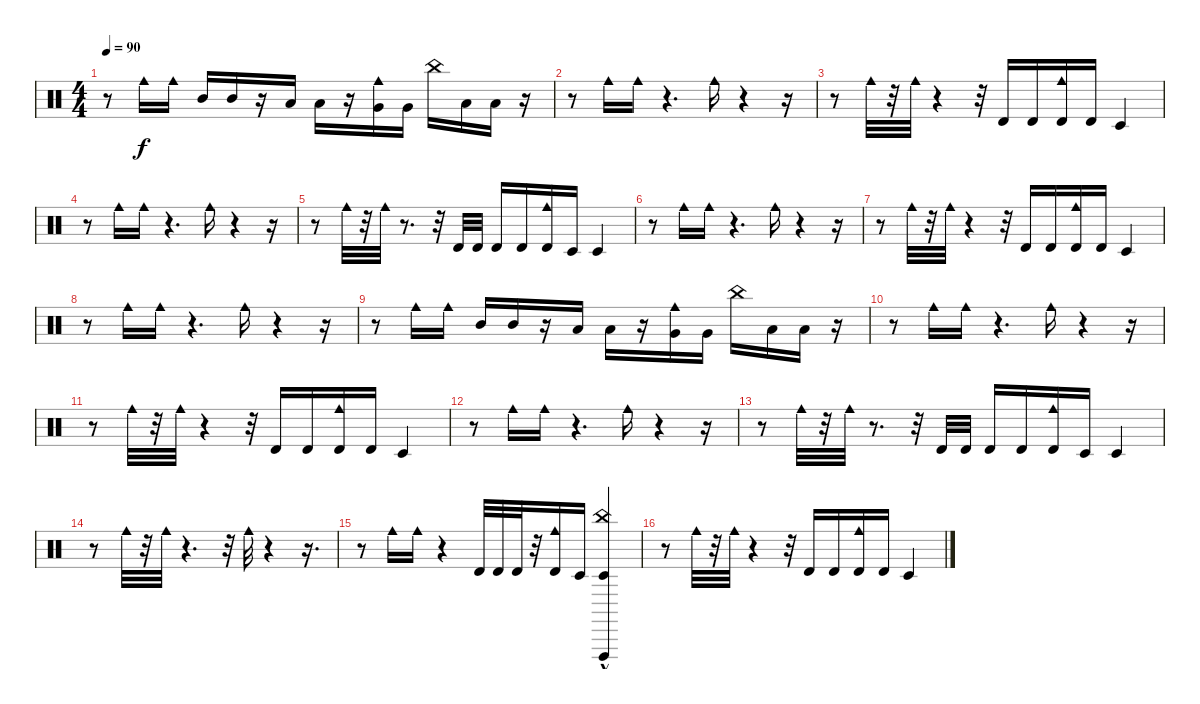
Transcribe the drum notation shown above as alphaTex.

\track "" {instrument percussion}
\staff {score}
\articulation defaults
\ts (4 4)
\tempo 90
\clef neutral
\ks c
r.8{dy f} "Cowbell medium (hit)".16 "Cowbell medium (hit)".16 "Mid Tom (hit)".16 "Mid Tom (hit)".16 r.16 "Low Tom (hit)".16 "Low Tom (hit)".16 r.16 ("Very Low Tom (hit)" "Cowbell medium (hit)").16 "Very Low Tom (hit)".16 "China (hit)".16 "Low Floor Tom (hit)".16 "Low Floor Tom (hit)".16 r.16 |
r.8 "Cowbell medium (hit)".16 "Cowbell medium (hit)".16 r.4{d} "Cowbell medium (hit)".16 r.4 r.16 |
r.8 "Cowbell medium (hit)".32 r.32 "Cowbell medium (hit)".32 r.4 r.32 "Timbale high (hit)".16 "Timbale high (hit)".16 ("Cowbell medium (hit)" "Timbale high (hit)").16 "Timbale high (hit)".16 "Timbale low (hit)".4 |
r.8 "Cowbell medium (hit)".16 "Cowbell medium (hit)".16 r.4{d} "Cowbell medium (hit)".16 r.4 r.16 |
r.8 "Cowbell medium (hit)".32 r.32 "Cowbell medium (hit)".32 r.8{d} r.32 "Timbale high (hit)".32 "Timbale high (hit)".32 "Timbale high (hit)".16 "Timbale high (hit)".16 ("Timbale high (hit)" "Cowbell medium (hit)").16 "Timbale low (hit)".16 "Timbale low (hit)".4 |
r.8 "Cowbell medium (hit)".16 "Cowbell medium (hit)".16 r.4{d} "Cowbell medium (hit)".16 r.4 r.16 |
r.8 "Cowbell medium (hit)".32 r.32 "Cowbell medium (hit)".32 r.4 r.32 "Timbale high (hit)".16 "Timbale high (hit)".16 ("Timbale high (hit)" "Cowbell medium (hit)").16 "Timbale high (hit)".16 "Timbale low (hit)".4 |
r.8 "Cowbell medium (hit)".16 "Cowbell medium (hit)".16 r.4{d} "Cowbell medium (hit)".16 r.4 r.16 |
r.8 "Cowbell medium (hit)".16 "Cowbell medium (hit)".16 "Mid Tom (hit)".16 "Mid Tom (hit)".16 r.16 "Low Tom (hit)".16 "Low Tom (hit)".16 r.16 ("Cowbell medium (hit)" "Very Low Tom (hit)").16 "Very Low Tom (hit)".16 "China (hit)".16 "Low Floor Tom (hit)".16 "Low Floor Tom (hit)".16 r.16 |
r.8 "Cowbell medium (hit)".16 "Cowbell medium (hit)".16 r.4{d} "Cowbell medium (hit)".16 r.4 r.16 |
r.8 "Cowbell medium (hit)".32 r.32 "Cowbell medium (hit)".32 r.4 r.32 "Timbale high (hit)".16 "Timbale high (hit)".16 ("Timbale high (hit)" "Cowbell medium (hit)").16 "Timbale high (hit)".16 "Timbale low (hit)".4 |
r.8 "Cowbell medium (hit)".16 "Cowbell medium (hit)".16 r.4{d} "Cowbell medium (hit)".16 r.4 r.16 |
r.8 "Cowbell medium (hit)".32 r.32 "Cowbell medium (hit)".32 r.8{d} r.32 "Timbale high (hit)".32 "Timbale high (hit)".32 "Timbale high (hit)".16 "Timbale high (hit)".16 ("Cowbell medium (hit)" "Timbale high (hit)").16 "Timbale low (hit)".16 "Timbale low (hit)".4 |
r.8 "Cowbell medium (hit)".32 r.32 "Cowbell medium (hit)".32 r.4{d} r.32 "Cowbell medium (hit)".32 r.4 r.16{d} |
r.8 "Cowbell medium (hit)".16 "Cowbell medium (hit)".16 r.4 "Timbale high (hit)".32 "Timbale high (hit)".32 "Timbale high (hit)".32 r.32 ("Cowbell medium (hit)" "Timbale high (hit)").16 "Timbale low (hit)".16 ("Timbale low (hit)" "Vibraslap (hit)"{hac} "China (hit)").4 |
r.8 "Cowbell medium (hit)".32 r.32 "Cowbell medium (hit)".32 r.4 r.32 "Timbale high (hit)".16 "Timbale high (hit)".16 ("Timbale high (hit)" "Cowbell medium (hit)").16 "Timbale high (hit)".16 "Timbale low (hit)".4
